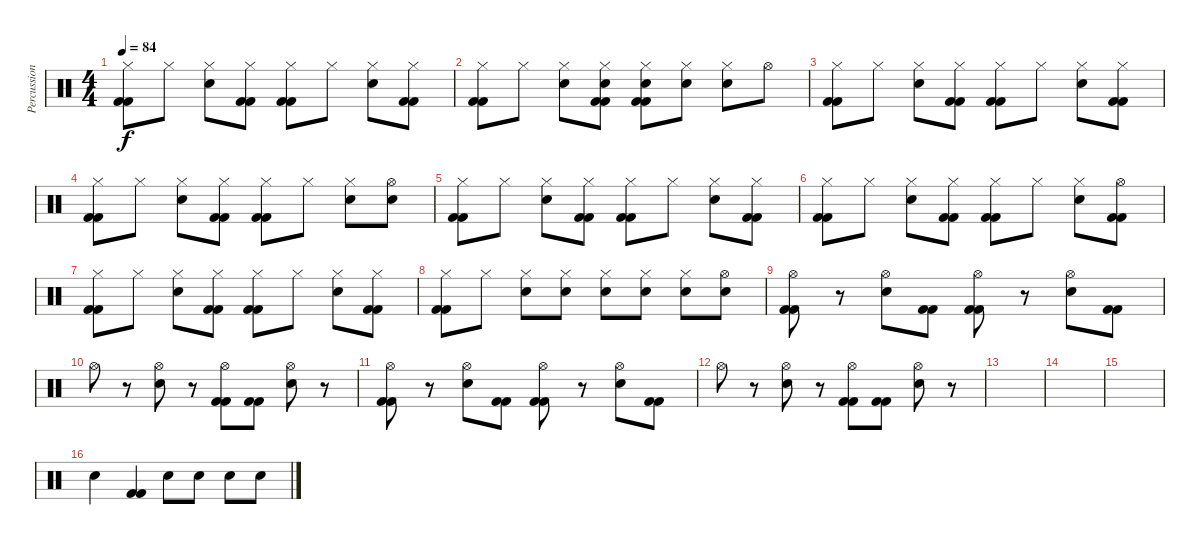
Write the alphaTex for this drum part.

\track ("Percussion" "Percussion") {instrument percussion}
\staff {score}
\articulation defaults
\ts (4 4)
\tempo 84
\clef neutral
\ks c
("Hi-Hat (closed)" "Kick (hit) 2" "Kick (hit) 2").8{dy f} "Hi-Hat (closed)".8 ("Hi-Hat (closed)" "Electric Snare (hit)").8 ("Hi-Hat (closed)" "Kick (hit) 2" "Kick (hit) 2").8 ("Hi-Hat (closed)" "Kick (hit) 2" "Kick (hit) 2").8 "Hi-Hat (closed)".8 ("Hi-Hat (closed)" "Electric Snare (hit)").8 ("Hi-Hat (closed)" "Kick (hit) 2" "Kick (hit) 2").8 |
("Hi-Hat (closed)" "Kick (hit) 2" "Kick (hit) 2").8 "Hi-Hat (closed)".8 ("Hi-Hat (closed)" "Electric Snare (hit)").8 ("Hi-Hat (closed)" "Electric Snare (hit)" "Kick (hit) 2" "Kick (hit) 2").8 ("Hi-Hat (closed)" "Electric Snare (hit)" "Kick (hit) 2" "Kick (hit) 2").8 ("Hi-Hat (closed)" "Electric Snare (hit)").8 ("Hi-Hat (closed)" "Electric Snare (hit)").8 "Hi-Hat (open)".8 |
("Hi-Hat (closed)" "Kick (hit) 2" "Kick (hit) 2").8 "Hi-Hat (closed)".8 ("Hi-Hat (closed)" "Electric Snare (hit)").8 ("Hi-Hat (closed)" "Kick (hit) 2" "Kick (hit) 2").8 ("Hi-Hat (closed)" "Kick (hit) 2" "Kick (hit) 2").8 "Hi-Hat (closed)".8 ("Hi-Hat (closed)" "Electric Snare (hit)").8 ("Hi-Hat (closed)" "Kick (hit) 2" "Kick (hit) 2").8 |
("Hi-Hat (closed)" "Kick (hit) 2" "Kick (hit) 2").8 "Hi-Hat (closed)".8 ("Hi-Hat (closed)" "Electric Snare (hit)").8 ("Hi-Hat (closed)" "Kick (hit) 2" "Kick (hit) 2").8 ("Hi-Hat (closed)" "Kick (hit) 2" "Kick (hit) 2").8 "Hi-Hat (closed)".8 ("Hi-Hat (closed)" "Electric Snare (hit)").8 ("Hi-Hat (open)" "Electric Snare (hit)").8 |
("Hi-Hat (closed)" "Kick (hit) 2" "Kick (hit) 2").8 "Hi-Hat (closed)".8 ("Hi-Hat (closed)" "Electric Snare (hit)").8 ("Hi-Hat (closed)" "Kick (hit) 2" "Kick (hit) 2").8 ("Hi-Hat (closed)" "Kick (hit) 2" "Kick (hit) 2").8 "Hi-Hat (closed)".8 ("Hi-Hat (closed)" "Electric Snare (hit)").8 ("Hi-Hat (closed)" "Kick (hit) 2" "Kick (hit) 2").8 |
("Hi-Hat (closed)" "Kick (hit) 2" "Kick (hit) 2").8 "Hi-Hat (closed)".8 ("Hi-Hat (closed)" "Electric Snare (hit)").8 ("Hi-Hat (closed)" "Kick (hit) 2" "Kick (hit) 2").8 ("Hi-Hat (closed)" "Kick (hit) 2" "Kick (hit) 2").8 "Hi-Hat (closed)".8 ("Hi-Hat (closed)" "Electric Snare (hit)").8 ("Hi-Hat (open)" "Kick (hit) 2" "Kick (hit) 2").8 |
("Hi-Hat (closed)" "Kick (hit) 2" "Kick (hit) 2").8 "Hi-Hat (closed)".8 ("Hi-Hat (closed)" "Electric Snare (hit)").8 ("Hi-Hat (closed)" "Kick (hit) 2" "Kick (hit) 2").8 ("Hi-Hat (closed)" "Kick (hit) 2" "Kick (hit) 2").8 "Hi-Hat (closed)".8 ("Hi-Hat (closed)" "Electric Snare (hit)").8 ("Hi-Hat (closed)" "Kick (hit) 2" "Kick (hit) 2").8 |
("Hi-Hat (closed)" "Kick (hit) 2" "Kick (hit) 2").8 "Hi-Hat (closed)".8 ("Hi-Hat (closed)" "Electric Snare (hit)").8 ("Hi-Hat (closed)" "Electric Snare (hit)").8 ("Hi-Hat (closed)" "Electric Snare (hit)").8 ("Hi-Hat (closed)" "Electric Snare (hit)").8 ("Hi-Hat (closed)" "Electric Snare (hit)").8 ("Hi-Hat (open)" "Electric Snare (hit)").8 |
("Hi-Hat (open)" "Kick (hit) 2" "Kick (hit) 2").8 r.8 ("Hi-Hat (open)" "Electric Snare (hit)").8 ("Kick (hit) 2" "Kick (hit) 2").8 ("Hi-Hat (open)" "Kick (hit) 2" "Kick (hit) 2").8 r.8 ("Hi-Hat (open)" "Electric Snare (hit)").8 ("Kick (hit) 2" "Kick (hit) 2").8 |
"Hi-Hat (open)".8 r.8 ("Hi-Hat (open)" "Electric Snare (hit)").8 r.8 ("Hi-Hat (open)" "Kick (hit) 2" "Kick (hit) 2").8 ("Kick (hit) 2" "Kick (hit) 2").8 ("Hi-Hat (open)" "Electric Snare (hit)").8 r.8 |
("Hi-Hat (open)" "Kick (hit) 2" "Kick (hit) 2").8 r.8 ("Hi-Hat (open)" "Electric Snare (hit)").8 ("Kick (hit) 2" "Kick (hit) 2").8 ("Hi-Hat (open)" "Kick (hit) 2" "Kick (hit) 2").8 r.8 ("Hi-Hat (open)" "Electric Snare (hit)").8 ("Kick (hit) 2" "Kick (hit) 2").8 |
"Hi-Hat (open)".8 r.8 ("Hi-Hat (open)" "Electric Snare (hit)").8 r.8 ("Hi-Hat (open)" "Kick (hit) 2" "Kick (hit) 2").8 ("Kick (hit) 2" "Kick (hit) 2").8 ("Hi-Hat (open)" "Electric Snare (hit)").8 r.8 |
|
|
|
"Electric Snare (hit)".4 ("Kick (hit) 2" "Kick (hit) 2").4 "Electric Snare (hit)".8 "Electric Snare (hit)".8 "Electric Snare (hit)".8 "Electric Snare (hit)".8
